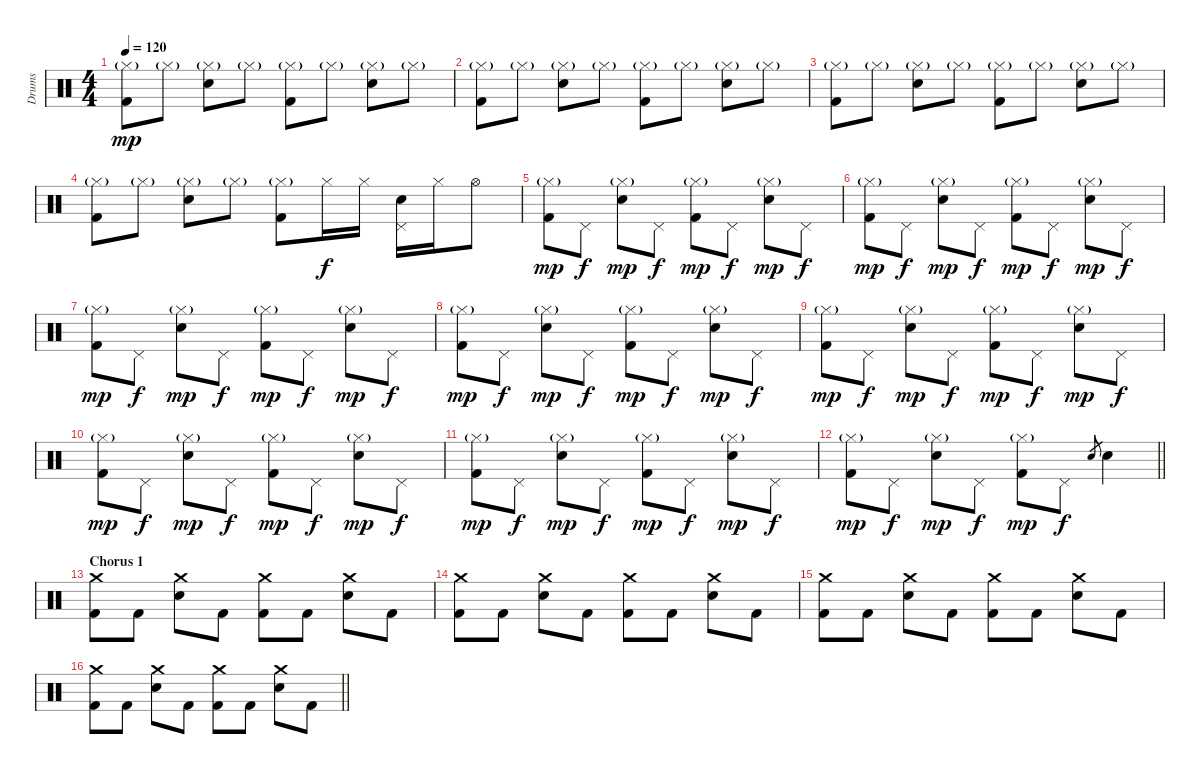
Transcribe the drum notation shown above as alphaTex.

\track ("Drums " "Drums ") {instrument percussion}
\staff {score}
\articulation defaults
\ts (4 4)
\tempo 120
\clef neutral
\ks c
("Hi-Hat (closed)"{g} "Kick (hit) 2").8{dy mp} "Hi-Hat (closed)"{g}.8 ("Hi-Hat (closed)"{g} "Electric Snare (hit)").8 "Hi-Hat (closed)"{g}.8 ("Hi-Hat (closed)"{g} "Kick (hit) 2").8 "Hi-Hat (closed)"{g}.8 ("Hi-Hat (closed)"{g} "Electric Snare (hit)").8 "Hi-Hat (closed)"{g}.8 |
("Hi-Hat (closed)"{g} "Kick (hit) 2").8 "Hi-Hat (closed)"{g}.8 ("Hi-Hat (closed)"{g} "Electric Snare (hit)").8 "Hi-Hat (closed)"{g}.8 ("Hi-Hat (closed)"{g} "Kick (hit) 2").8 "Hi-Hat (closed)"{g}.8 ("Hi-Hat (closed)"{g} "Electric Snare (hit)").8 "Hi-Hat (closed)"{g}.8 |
("Hi-Hat (closed)"{g} "Kick (hit) 2").8 "Hi-Hat (closed)"{g}.8 ("Hi-Hat (closed)"{g} "Electric Snare (hit)").8 "Hi-Hat (closed)"{g}.8 ("Hi-Hat (closed)"{g} "Kick (hit) 2").8 "Hi-Hat (closed)"{g}.8 ("Hi-Hat (closed)"{g} "Electric Snare (hit)").8 "Hi-Hat (closed)"{g}.8 |
("Hi-Hat (closed)"{g} "Kick (hit) 2").8 "Hi-Hat (closed)"{g}.8 ("Hi-Hat (closed)"{g} "Electric Snare (hit)").8 "Hi-Hat (closed)"{g}.8 ("Hi-Hat (closed)"{g} "Kick (hit) 2").8 "Hi-Hat (closed)".16{dy f} "Hi-Hat (closed)".16 ("Pedal Hi-Hat (hit)" "Electric Snare (hit)").16 "Hi-Hat (closed)".16 "Hi-Hat (open)".8 |
("Hi-Hat (closed)"{g} "Kick (hit) 2").8{dy mp} "Pedal Hi-Hat (hit)".8{dy f} ("Hi-Hat (closed)"{g} "Electric Snare (hit)").8{dy mp} "Pedal Hi-Hat (hit)".8{dy f} ("Hi-Hat (closed)"{g} "Kick (hit) 2").8{dy mp} "Pedal Hi-Hat (hit)".8{dy f} ("Hi-Hat (closed)"{g} "Electric Snare (hit)").8{dy mp} "Pedal Hi-Hat (hit)".8{dy f} |
("Hi-Hat (closed)"{g} "Kick (hit) 2").8{dy mp} "Pedal Hi-Hat (hit)".8{dy f} ("Hi-Hat (closed)"{g} "Electric Snare (hit)").8{dy mp} "Pedal Hi-Hat (hit)".8{dy f} ("Hi-Hat (closed)"{g} "Kick (hit) 2").8{dy mp} "Pedal Hi-Hat (hit)".8{dy f} ("Hi-Hat (closed)"{g} "Electric Snare (hit)").8{dy mp} "Pedal Hi-Hat (hit)".8{dy f} |
("Hi-Hat (closed)"{g} "Kick (hit) 2").8{dy mp} "Pedal Hi-Hat (hit)".8{dy f} ("Hi-Hat (closed)"{g} "Electric Snare (hit)").8{dy mp} "Pedal Hi-Hat (hit)".8{dy f} ("Hi-Hat (closed)"{g} "Kick (hit) 2").8{dy mp} "Pedal Hi-Hat (hit)".8{dy f} ("Hi-Hat (closed)"{g} "Electric Snare (hit)").8{dy mp} "Pedal Hi-Hat (hit)".8{dy f} |
("Hi-Hat (closed)"{g} "Kick (hit) 2").8{dy mp} "Pedal Hi-Hat (hit)".8{dy f} ("Hi-Hat (closed)"{g} "Electric Snare (hit)").8{dy mp} "Pedal Hi-Hat (hit)".8{dy f} ("Hi-Hat (closed)"{g} "Kick (hit) 2").8{dy mp} "Pedal Hi-Hat (hit)".8{dy f} ("Hi-Hat (closed)"{g} "Electric Snare (hit)").8{dy mp} "Pedal Hi-Hat (hit)".8{dy f} |
("Hi-Hat (closed)"{g} "Kick (hit) 2").8{dy mp} "Pedal Hi-Hat (hit)".8{dy f} ("Hi-Hat (closed)"{g} "Electric Snare (hit)").8{dy mp} "Pedal Hi-Hat (hit)".8{dy f} ("Hi-Hat (closed)"{g} "Kick (hit) 2").8{dy mp} "Pedal Hi-Hat (hit)".8{dy f} ("Hi-Hat (closed)"{g} "Electric Snare (hit)").8{dy mp} "Pedal Hi-Hat (hit)".8{dy f} |
("Hi-Hat (closed)"{g} "Kick (hit) 2").8{dy mp} "Pedal Hi-Hat (hit)".8{dy f} ("Hi-Hat (closed)"{g} "Electric Snare (hit)").8{dy mp} "Pedal Hi-Hat (hit)".8{dy f} ("Hi-Hat (closed)"{g} "Kick (hit) 2").8{dy mp} "Pedal Hi-Hat (hit)".8{dy f} ("Hi-Hat (closed)"{g} "Electric Snare (hit)").8{dy mp} "Pedal Hi-Hat (hit)".8{dy f} |
("Hi-Hat (closed)"{g} "Kick (hit) 2").8{dy mp} "Pedal Hi-Hat (hit)".8{dy f} ("Hi-Hat (closed)"{g} "Electric Snare (hit)").8{dy mp} "Pedal Hi-Hat (hit)".8{dy f} ("Hi-Hat (closed)"{g} "Kick (hit) 2").8{dy mp} "Pedal Hi-Hat (hit)".8{dy f} ("Hi-Hat (closed)"{g} "Electric Snare (hit)").8{dy mp} "Pedal Hi-Hat (hit)".8{dy f} |
\barLineRight lightlight
("Hi-Hat (closed)"{g} "Kick (hit) 2").8{dy mp} "Pedal Hi-Hat (hit)".8{dy f} ("Hi-Hat (closed)"{g} "Electric Snare (hit)").8{dy mp} "Pedal Hi-Hat (hit)".8{dy f} ("Hi-Hat (closed)"{g} "Kick (hit) 2").8{dy mp} "Pedal Hi-Hat (hit)".8{dy f} "Electric Snare (hit)".8{gr} "Electric Snare (hit)".4 |
\section ("" "Chorus 1")
("Crash medium (hit)" "Kick (hit) 2").8 "Kick (hit) 2".8 ("Crash medium (hit)" "Electric Snare (hit)").8 "Kick (hit) 2".8 ("Crash medium (hit)" "Kick (hit) 2").8 "Kick (hit) 2".8 ("Crash medium (hit)" "Electric Snare (hit)").8 "Kick (hit) 2".8 |
("Crash medium (hit)" "Kick (hit) 2").8 "Kick (hit) 2".8 ("Crash medium (hit)" "Electric Snare (hit)").8 "Kick (hit) 2".8 ("Crash medium (hit)" "Kick (hit) 2").8 "Kick (hit) 2".8 ("Crash medium (hit)" "Electric Snare (hit)").8 "Kick (hit) 2".8 |
("Crash medium (hit)" "Kick (hit) 2").8 "Kick (hit) 2".8 ("Crash medium (hit)" "Electric Snare (hit)").8 "Kick (hit) 2".8 ("Crash medium (hit)" "Kick (hit) 2").8 "Kick (hit) 2".8 ("Crash medium (hit)" "Electric Snare (hit)").8 "Kick (hit) 2".8 |
\barLineRight lightlight
("Crash medium (hit)" "Kick (hit) 2").8 "Kick (hit) 2".8 ("Crash medium (hit)" "Electric Snare (hit)").8 "Kick (hit) 2".8 ("Crash medium (hit)" "Kick (hit) 2").8 "Kick (hit) 2".8 ("Crash medium (hit)" "Electric Snare (hit)").8 "Kick (hit) 2".8
